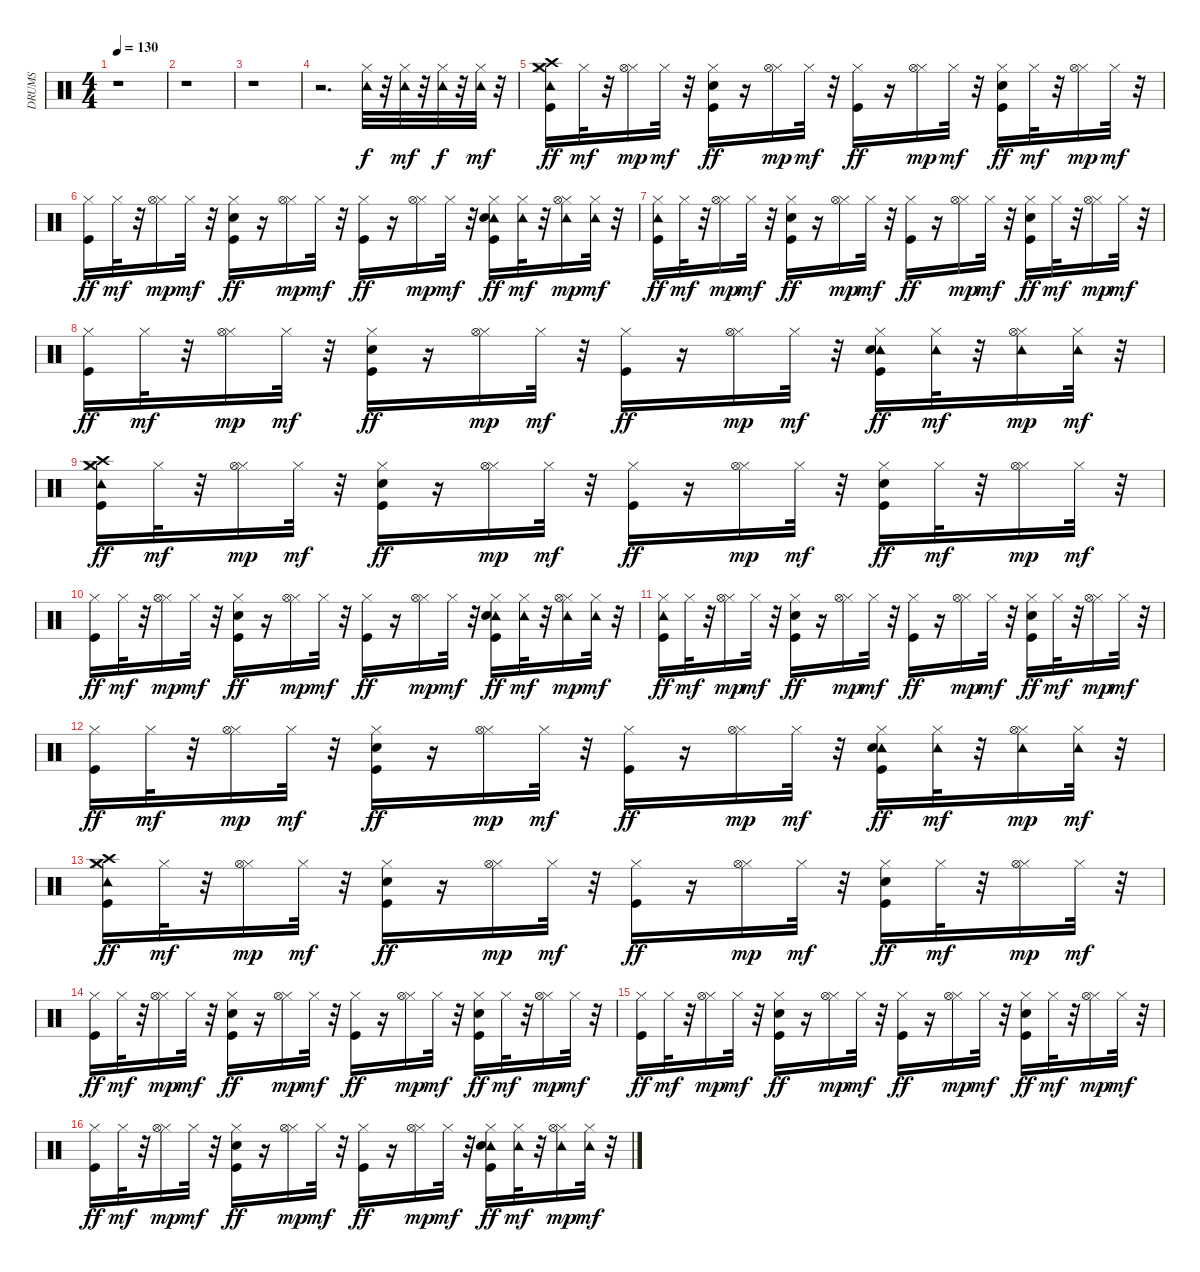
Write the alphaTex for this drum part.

\track ("DRUMS" "DRUMS") {instrument percussion}
\staff {score}
\articulation defaults
\ts (4 4)
\tempo 130
\clef neutral
\ks c
r.1{dy f} |
r.1 |
r.1 |
r.2{d} ("Hi-Hat (closed)" "Tambourine (hit)").32 r.32 ("Hi-Hat (closed)" "Tambourine (hit)").32{dy mf} r.32 ("Hi-Hat (closed)" "Tambourine (hit)").32{dy f} r.32 ("Hi-Hat (closed)" "Tambourine (hit)").32{dy mf} r.32 |
("Tambourine (hit)" "Crash high (hit)" "Crash medium (hit)" "Hi-Hat (closed)" "Kick (hit)").16{dy ff} "Hi-Hat (closed)".32{dy mf} r.32 ("Hi-Hat (closed)" "Hi-Hat (open)").16{dy mp} "Hi-Hat (closed)".32{dy mf} r.32 ("Electric Snare (hit)" "Hi-Hat (closed)" "Kick (hit)").16{dy ff} r.16 ("Hi-Hat (closed)" "Hi-Hat (open)").16{dy mp} "Hi-Hat (closed)".32{dy mf} r.32 ("Hi-Hat (closed)" "Kick (hit)").16{dy ff} r.16 ("Hi-Hat (closed)" "Hi-Hat (open)").16{dy mp} "Hi-Hat (closed)".32{dy mf} r.32 ("Electric Snare (hit)" "Hi-Hat (closed)" "Kick (hit)").16{dy ff} "Hi-Hat (closed)".32{dy mf} r.32 ("Hi-Hat (closed)" "Hi-Hat (open)").16{dy mp} "Hi-Hat (closed)".32{dy mf} r.32 |
("Hi-Hat (closed)" "Kick (hit)").16{dy ff} "Hi-Hat (closed)".32{dy mf} r.32 ("Hi-Hat (closed)" "Hi-Hat (open)").16{dy mp} "Hi-Hat (closed)".32{dy mf} r.32 ("Electric Snare (hit)" "Hi-Hat (closed)" "Kick (hit)").16{dy ff} r.16 ("Hi-Hat (closed)" "Hi-Hat (open)").16{dy mp} "Hi-Hat (closed)".32{dy mf} r.32 ("Hi-Hat (closed)" "Kick (hit)").16{dy ff} r.16 ("Hi-Hat (closed)" "Hi-Hat (open)").16{dy mp} "Hi-Hat (closed)".32{dy mf} r.32 ("Tambourine (hit)" "Electric Snare (hit)" "Hi-Hat (closed)" "Kick (hit)").16{dy ff} ("Tambourine (hit)" "Hi-Hat (closed)").32{dy mf} r.32 ("Tambourine (hit)" "Hi-Hat (closed)" "Hi-Hat (open)").16{dy mp} ("Tambourine (hit)" "Hi-Hat (closed)").32{dy mf} r.32 |
("Tambourine (hit)" "Hi-Hat (closed)" "Kick (hit)").16{dy ff} "Hi-Hat (closed)".32{dy mf} r.32 ("Hi-Hat (closed)" "Hi-Hat (open)").16{dy mp} "Hi-Hat (closed)".32{dy mf} r.32 ("Electric Snare (hit)" "Hi-Hat (closed)" "Kick (hit)").16{dy ff} r.16 ("Hi-Hat (closed)" "Hi-Hat (open)").16{dy mp} "Hi-Hat (closed)".32{dy mf} r.32 ("Hi-Hat (closed)" "Kick (hit)").16{dy ff} r.16 ("Hi-Hat (closed)" "Hi-Hat (open)").16{dy mp} "Hi-Hat (closed)".32{dy mf} r.32 ("Electric Snare (hit)" "Hi-Hat (closed)" "Kick (hit)").16{dy ff} "Hi-Hat (closed)".32{dy mf} r.32 ("Hi-Hat (closed)" "Hi-Hat (open)").16{dy mp} "Hi-Hat (closed)".32{dy mf} r.32 |
("Hi-Hat (closed)" "Kick (hit)").16{dy ff} "Hi-Hat (closed)".32{dy mf} r.32 ("Hi-Hat (closed)" "Hi-Hat (open)").16{dy mp} "Hi-Hat (closed)".32{dy mf} r.32 ("Electric Snare (hit)" "Hi-Hat (closed)" "Kick (hit)").16{dy ff} r.16 ("Hi-Hat (closed)" "Hi-Hat (open)").16{dy mp} "Hi-Hat (closed)".32{dy mf} r.32 ("Hi-Hat (closed)" "Kick (hit)").16{dy ff} r.16 ("Hi-Hat (closed)" "Hi-Hat (open)").16{dy mp} "Hi-Hat (closed)".32{dy mf} r.32 ("Tambourine (hit)" "Electric Snare (hit)" "Hi-Hat (closed)" "Kick (hit)").16{dy ff} ("Tambourine (hit)" "Hi-Hat (closed)").32{dy mf} r.32 ("Tambourine (hit)" "Hi-Hat (closed)" "Hi-Hat (open)").16{dy mp} ("Tambourine (hit)" "Hi-Hat (closed)").32{dy mf} r.32 |
("Hi-Hat (closed)" "Tambourine (hit)" "Crash high (hit)" "Crash medium (hit)" "Kick (hit)").16{dy ff} "Hi-Hat (closed)".32{dy mf} r.32 ("Hi-Hat (closed)" "Hi-Hat (open)").16{dy mp} "Hi-Hat (closed)".32{dy mf} r.32 ("Hi-Hat (closed)" "Electric Snare (hit)" "Kick (hit)").16{dy ff} r.16 ("Hi-Hat (closed)" "Hi-Hat (open)").16{dy mp} "Hi-Hat (closed)".32{dy mf} r.32 ("Hi-Hat (closed)" "Kick (hit)").16{dy ff} r.16 ("Hi-Hat (closed)" "Hi-Hat (open)").16{dy mp} "Hi-Hat (closed)".32{dy mf} r.32 ("Hi-Hat (closed)" "Electric Snare (hit)" "Kick (hit)").16{dy ff} "Hi-Hat (closed)".32{dy mf} r.32 ("Hi-Hat (closed)" "Hi-Hat (open)").16{dy mp} "Hi-Hat (closed)".32{dy mf} r.32 |
("Hi-Hat (closed)" "Kick (hit)").16{dy ff} "Hi-Hat (closed)".32{dy mf} r.32 ("Hi-Hat (closed)" "Hi-Hat (open)").16{dy mp} "Hi-Hat (closed)".32{dy mf} r.32 ("Hi-Hat (closed)" "Electric Snare (hit)" "Kick (hit)").16{dy ff} r.16 ("Hi-Hat (closed)" "Hi-Hat (open)").16{dy mp} "Hi-Hat (closed)".32{dy mf} r.32 ("Hi-Hat (closed)" "Kick (hit)").16{dy ff} r.16 ("Hi-Hat (closed)" "Hi-Hat (open)").16{dy mp} "Hi-Hat (closed)".32{dy mf} r.32 ("Hi-Hat (closed)" "Tambourine (hit)" "Electric Snare (hit)" "Kick (hit)").16{dy ff} ("Hi-Hat (closed)" "Tambourine (hit)").32{dy mf} r.32 ("Hi-Hat (closed)" "Tambourine (hit)" "Hi-Hat (open)").16{dy mp} ("Hi-Hat (closed)" "Tambourine (hit)").32{dy mf} r.32 |
("Hi-Hat (closed)" "Tambourine (hit)" "Kick (hit)").16{dy ff} "Hi-Hat (closed)".32{dy mf} r.32 ("Hi-Hat (closed)" "Hi-Hat (open)").16{dy mp} "Hi-Hat (closed)".32{dy mf} r.32 ("Hi-Hat (closed)" "Electric Snare (hit)" "Kick (hit)").16{dy ff} r.16 ("Hi-Hat (closed)" "Hi-Hat (open)").16{dy mp} "Hi-Hat (closed)".32{dy mf} r.32 ("Hi-Hat (closed)" "Kick (hit)").16{dy ff} r.16 ("Hi-Hat (closed)" "Hi-Hat (open)").16{dy mp} "Hi-Hat (closed)".32{dy mf} r.32 ("Hi-Hat (closed)" "Electric Snare (hit)" "Kick (hit)").16{dy ff} "Hi-Hat (closed)".32{dy mf} r.32 ("Hi-Hat (closed)" "Hi-Hat (open)").16{dy mp} "Hi-Hat (closed)".32{dy mf} r.32 |
("Hi-Hat (closed)" "Kick (hit)").16{dy ff} "Hi-Hat (closed)".32{dy mf} r.32 ("Hi-Hat (closed)" "Hi-Hat (open)").16{dy mp} "Hi-Hat (closed)".32{dy mf} r.32 ("Hi-Hat (closed)" "Electric Snare (hit)" "Kick (hit)").16{dy ff} r.16 ("Hi-Hat (closed)" "Hi-Hat (open)").16{dy mp} "Hi-Hat (closed)".32{dy mf} r.32 ("Hi-Hat (closed)" "Kick (hit)").16{dy ff} r.16 ("Hi-Hat (closed)" "Hi-Hat (open)").16{dy mp} "Hi-Hat (closed)".32{dy mf} r.32 ("Hi-Hat (closed)" "Tambourine (hit)" "Electric Snare (hit)" "Kick (hit)").16{dy ff} ("Hi-Hat (closed)" "Tambourine (hit)").32{dy mf} r.32 ("Hi-Hat (closed)" "Tambourine (hit)" "Hi-Hat (open)").16{dy mp} ("Hi-Hat (closed)" "Tambourine (hit)").32{dy mf} r.32 |
("Hi-Hat (closed)" "Tambourine (hit)" "Crash high (hit)" "Crash medium (hit)" "Kick (hit)").16{dy ff} "Hi-Hat (closed)".32{dy mf} r.32 ("Hi-Hat (closed)" "Hi-Hat (open)").16{dy mp} "Hi-Hat (closed)".32{dy mf} r.32 ("Hi-Hat (closed)" "Electric Snare (hit)" "Kick (hit)").16{dy ff} r.16 ("Hi-Hat (closed)" "Hi-Hat (open)").16{dy mp} "Hi-Hat (closed)".32{dy mf} r.32 ("Hi-Hat (closed)" "Kick (hit)").16{dy ff} r.16 ("Hi-Hat (closed)" "Hi-Hat (open)").16{dy mp} "Hi-Hat (closed)".32{dy mf} r.32 ("Hi-Hat (closed)" "Electric Snare (hit)" "Kick (hit)").16{dy ff} "Hi-Hat (closed)".32{dy mf} r.32 ("Hi-Hat (closed)" "Hi-Hat (open)").16{dy mp} "Hi-Hat (closed)".32{dy mf} r.32 |
("Hi-Hat (closed)" "Kick (hit)").16{dy ff} "Hi-Hat (closed)".32{dy mf} r.32 ("Hi-Hat (closed)" "Hi-Hat (open)").16{dy mp} "Hi-Hat (closed)".32{dy mf} r.32 ("Hi-Hat (closed)" "Electric Snare (hit)" "Kick (hit)").16{dy ff} r.16 ("Hi-Hat (closed)" "Hi-Hat (open)").16{dy mp} "Hi-Hat (closed)".32{dy mf} r.32 ("Hi-Hat (closed)" "Kick (hit)").16{dy ff} r.16 ("Hi-Hat (closed)" "Hi-Hat (open)").16{dy mp} "Hi-Hat (closed)".32{dy mf} r.32 ("Hi-Hat (closed)" "Electric Snare (hit)" "Kick (hit)").16{dy ff} "Hi-Hat (closed)".32{dy mf} r.32 ("Hi-Hat (closed)" "Hi-Hat (open)").16{dy mp} "Hi-Hat (closed)".32{dy mf} r.32 |
("Hi-Hat (closed)" "Kick (hit)").16{dy ff} "Hi-Hat (closed)".32{dy mf} r.32 ("Hi-Hat (closed)" "Hi-Hat (open)").16{dy mp} "Hi-Hat (closed)".32{dy mf} r.32 ("Hi-Hat (closed)" "Electric Snare (hit)" "Kick (hit)").16{dy ff} r.16 ("Hi-Hat (closed)" "Hi-Hat (open)").16{dy mp} "Hi-Hat (closed)".32{dy mf} r.32 ("Hi-Hat (closed)" "Kick (hit)").16{dy ff} r.16 ("Hi-Hat (closed)" "Hi-Hat (open)").16{dy mp} "Hi-Hat (closed)".32{dy mf} r.32 ("Hi-Hat (closed)" "Electric Snare (hit)" "Kick (hit)").16{dy ff} "Hi-Hat (closed)".32{dy mf} r.32 ("Hi-Hat (closed)" "Hi-Hat (open)").16{dy mp} "Hi-Hat (closed)".32{dy mf} r.32 |
("Hi-Hat (closed)" "Kick (hit)").16{dy ff} "Hi-Hat (closed)".32{dy mf} r.32 ("Hi-Hat (closed)" "Hi-Hat (open)").16{dy mp} "Hi-Hat (closed)".32{dy mf} r.32 ("Hi-Hat (closed)" "Electric Snare (hit)" "Kick (hit)").16{dy ff} r.16 ("Hi-Hat (closed)" "Hi-Hat (open)").16{dy mp} "Hi-Hat (closed)".32{dy mf} r.32 ("Hi-Hat (closed)" "Kick (hit)").16{dy ff} r.16 ("Hi-Hat (closed)" "Hi-Hat (open)").16{dy mp} "Hi-Hat (closed)".32{dy mf} r.32 ("Hi-Hat (closed)" "Tambourine (hit)" "Electric Snare (hit)" "Kick (hit)").16{dy ff} ("Hi-Hat (closed)" "Tambourine (hit)").32{dy mf} r.32 ("Hi-Hat (closed)" "Tambourine (hit)" "Hi-Hat (open)").16{dy mp} ("Hi-Hat (closed)" "Tambourine (hit)").32{dy mf} r.32
